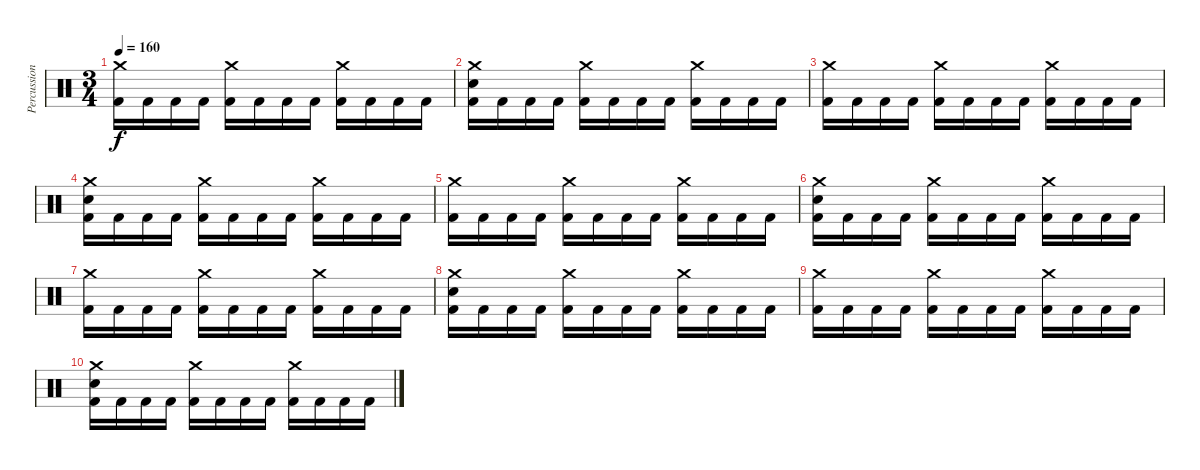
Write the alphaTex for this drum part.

\track ("Percussion" "Percussion") {instrument percussion}
\staff {score}
\articulation defaults
\ts (3 4)
\tempo 160
\clef neutral
\ks c
("Crash medium (hit)" "Kick (hit) 2").16{dy f} "Kick (hit) 2".16 "Kick (hit) 2".16 "Kick (hit) 2".16 ("Crash medium (hit)" "Kick (hit) 2").16 "Kick (hit) 2".16 "Kick (hit) 2".16 "Kick (hit) 2".16 ("Crash medium (hit)" "Kick (hit) 2").16 "Kick (hit) 2".16 "Kick (hit) 2".16 "Kick (hit) 2".16 |
("Crash medium (hit)" "Electric Snare (hit)" "Kick (hit) 2").16 "Kick (hit) 2".16 "Kick (hit) 2".16 "Kick (hit) 2".16 ("Crash medium (hit)" "Kick (hit) 2").16 "Kick (hit) 2".16 "Kick (hit) 2".16 "Kick (hit) 2".16 ("Crash medium (hit)" "Kick (hit) 2").16 "Kick (hit) 2".16 "Kick (hit) 2".16 "Kick (hit) 2".16 |
("Crash medium (hit)" "Kick (hit) 2").16 "Kick (hit) 2".16 "Kick (hit) 2".16 "Kick (hit) 2".16 ("Crash medium (hit)" "Kick (hit) 2").16 "Kick (hit) 2".16 "Kick (hit) 2".16 "Kick (hit) 2".16 ("Crash medium (hit)" "Kick (hit) 2").16 "Kick (hit) 2".16 "Kick (hit) 2".16 "Kick (hit) 2".16 |
("Crash medium (hit)" "Electric Snare (hit)" "Kick (hit) 2").16 "Kick (hit) 2".16 "Kick (hit) 2".16 "Kick (hit) 2".16 ("Crash medium (hit)" "Kick (hit) 2").16 "Kick (hit) 2".16 "Kick (hit) 2".16 "Kick (hit) 2".16 ("Crash medium (hit)" "Kick (hit) 2").16 "Kick (hit) 2".16 "Kick (hit) 2".16 "Kick (hit) 2".16 |
("Crash medium (hit)" "Kick (hit) 2").16 "Kick (hit) 2".16 "Kick (hit) 2".16 "Kick (hit) 2".16 ("Crash medium (hit)" "Kick (hit) 2").16 "Kick (hit) 2".16 "Kick (hit) 2".16 "Kick (hit) 2".16 ("Crash medium (hit)" "Kick (hit) 2").16 "Kick (hit) 2".16 "Kick (hit) 2".16 "Kick (hit) 2".16 |
("Crash medium (hit)" "Electric Snare (hit)" "Kick (hit) 2").16 "Kick (hit) 2".16 "Kick (hit) 2".16 "Kick (hit) 2".16 ("Crash medium (hit)" "Kick (hit) 2").16 "Kick (hit) 2".16 "Kick (hit) 2".16 "Kick (hit) 2".16 ("Crash medium (hit)" "Kick (hit) 2").16 "Kick (hit) 2".16 "Kick (hit) 2".16 "Kick (hit) 2".16 |
("Crash medium (hit)" "Kick (hit) 2").16 "Kick (hit) 2".16 "Kick (hit) 2".16 "Kick (hit) 2".16 ("Crash medium (hit)" "Kick (hit) 2").16 "Kick (hit) 2".16 "Kick (hit) 2".16 "Kick (hit) 2".16 ("Crash medium (hit)" "Kick (hit) 2").16 "Kick (hit) 2".16 "Kick (hit) 2".16 "Kick (hit) 2".16 |
("Crash medium (hit)" "Electric Snare (hit)" "Kick (hit) 2").16 "Kick (hit) 2".16 "Kick (hit) 2".16 "Kick (hit) 2".16 ("Crash medium (hit)" "Kick (hit) 2").16 "Kick (hit) 2".16 "Kick (hit) 2".16 "Kick (hit) 2".16 ("Crash medium (hit)" "Kick (hit) 2").16 "Kick (hit) 2".16 "Kick (hit) 2".16 "Kick (hit) 2".16 |
("Crash medium (hit)" "Kick (hit) 2").16 "Kick (hit) 2".16 "Kick (hit) 2".16 "Kick (hit) 2".16 ("Crash medium (hit)" "Kick (hit) 2").16 "Kick (hit) 2".16 "Kick (hit) 2".16 "Kick (hit) 2".16 ("Crash medium (hit)" "Kick (hit) 2").16 "Kick (hit) 2".16 "Kick (hit) 2".16 "Kick (hit) 2".16 |
("Crash medium (hit)" "Electric Snare (hit)" "Kick (hit) 2").16 "Kick (hit) 2".16 "Kick (hit) 2".16 "Kick (hit) 2".16 ("Crash medium (hit)" "Kick (hit) 2").16 "Kick (hit) 2".16 "Kick (hit) 2".16 "Kick (hit) 2".16 ("Crash medium (hit)" "Kick (hit) 2").16 "Kick (hit) 2".16 "Kick (hit) 2".16 "Kick (hit) 2".16
